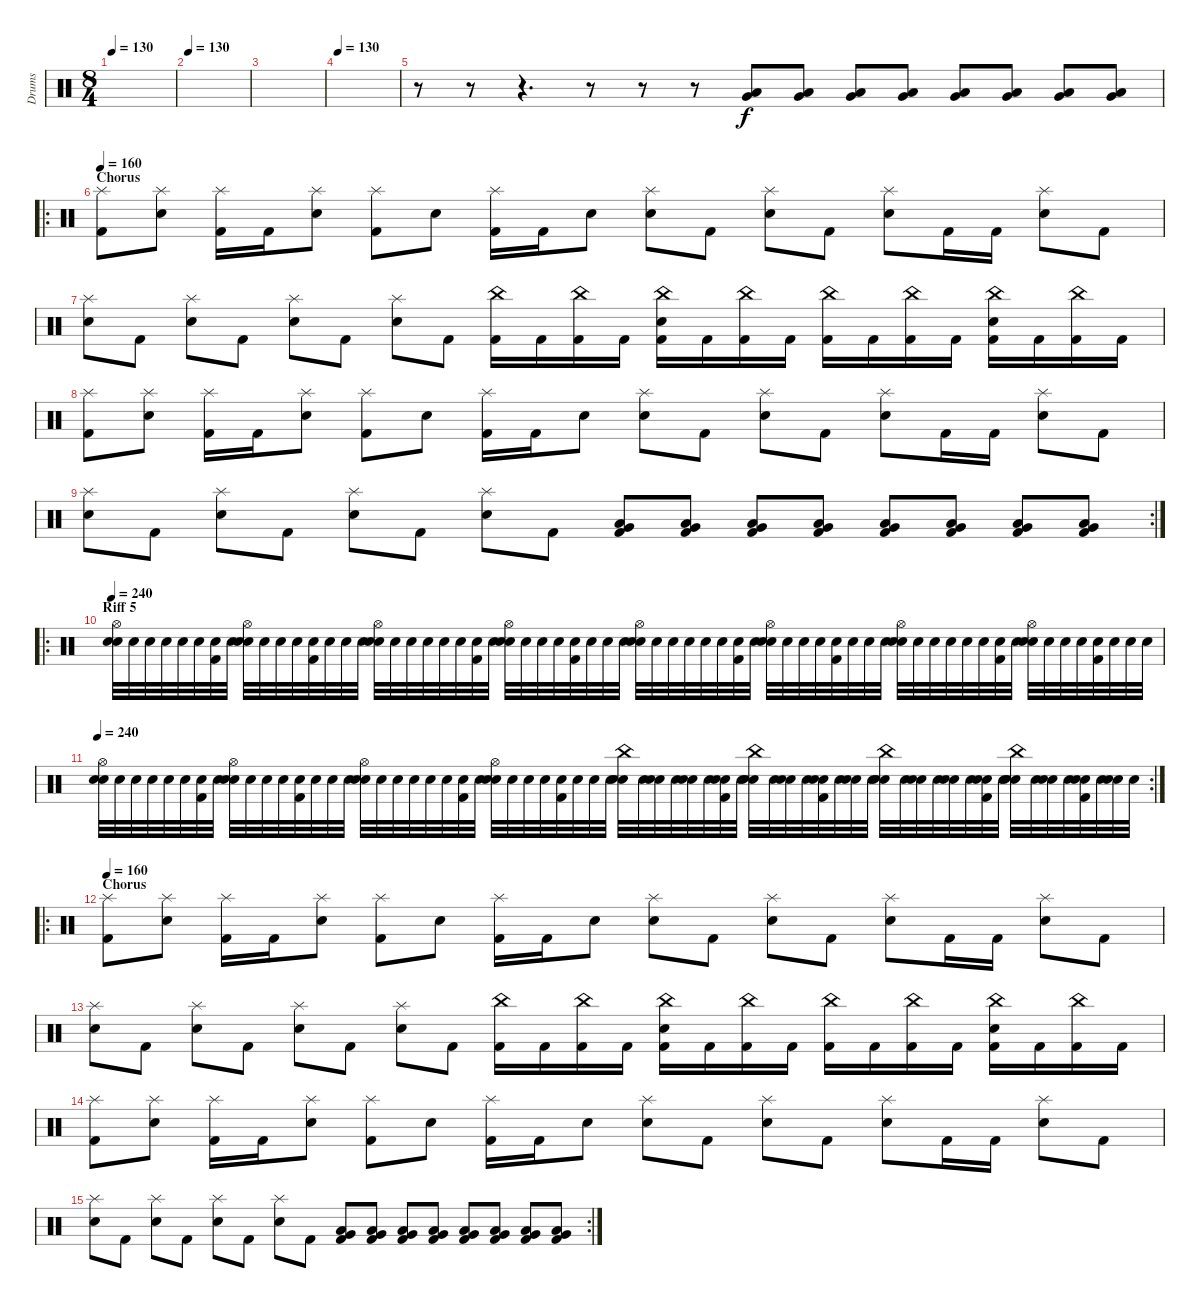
\track ("Drums" "Drums") {instrument percussion}
\staff {score}
\articulation defaults
\ts (8 4)
\tempo 130
\clef neutral
\ks c
|
\tempo 130
|
|
\tempo 130
|
r.8 r.8 r.4{d} r.8 r.8 r.8 ("Very Low Tom (hit)" "Low Tom (hit)").8 ("Very Low Tom (hit)" "Low Tom (hit)").8 ("Very Low Tom (hit)" "Low Tom (hit)").8 ("Very Low Tom (hit)" "Low Tom (hit)").8 ("Very Low Tom (hit)" "Low Tom (hit)").8 ("Very Low Tom (hit)" "Low Tom (hit)").8 ("Very Low Tom (hit)" "Low Tom (hit)").8 ("Very Low Tom (hit)" "Low Tom (hit)").8 |
\ro
\section ("" "Chorus")
\tempo 160
("Kick (hit) 2" "Splash (hit)").8 ("Snare (hit) 2" "Splash (hit)").8 ("Kick (hit) 2" "Splash (hit)").16 "Kick (hit) 2".16 ("Snare (hit) 2" "Splash (hit)").8 ("Kick (hit) 2" "Splash (hit)").8 "Snare (hit) 2".8 ("Kick (hit) 2" "Splash (hit)").16 "Kick (hit) 2".16 "Snare (hit) 2".8 ("Snare (hit) 2" "Splash (hit)").8 "Kick (hit) 2".8 ("Snare (hit) 2" "Splash (hit)").8 "Kick (hit) 2".8 ("Snare (hit) 2" "Splash (hit)").8 "Kick (hit) 2".16 "Kick (hit) 2".16 ("Snare (hit) 2" "Splash (hit)").8 "Kick (hit) 2".8 |
("Snare (hit) 2" "Splash (hit)").8 "Kick (hit) 2".8 ("Snare (hit) 2" "Splash (hit)").8 "Kick (hit) 2".8 ("Snare (hit) 2" "Splash (hit)").8 "Kick (hit) 2".8 ("Snare (hit) 2" "Splash (hit)").8 "Kick (hit) 2".8 ("Kick (hit) 2" "China (hit)").16 "Kick (hit) 2".16 ("Kick (hit) 2" "China (hit)").16 "Kick (hit) 2".16 ("Kick (hit) 2" "Snare (hit) 2" "China (hit)").16 "Kick (hit) 2".16 ("Kick (hit) 2" "China (hit)").16 "Kick (hit) 2".16 ("Kick (hit) 2" "China (hit)").16 "Kick (hit) 2".16 ("Kick (hit) 2" "China (hit)").16 "Kick (hit) 2".16 ("Kick (hit) 2" "Snare (hit) 2" "China (hit)").16 "Kick (hit) 2".16 ("Kick (hit) 2" "China (hit)").16 "Kick (hit) 2".16 |
("Kick (hit) 2" "Splash (hit)").8 ("Snare (hit) 2" "Splash (hit)").8 ("Kick (hit) 2" "Splash (hit)").16 "Kick (hit) 2".16 ("Snare (hit) 2" "Splash (hit)").8 ("Kick (hit) 2" "Splash (hit)").8 "Snare (hit) 2".8 ("Kick (hit) 2" "Splash (hit)").16 "Kick (hit) 2".16 "Snare (hit) 2".8 ("Snare (hit) 2" "Splash (hit)").8 "Kick (hit) 2".8 ("Snare (hit) 2" "Splash (hit)").8 "Kick (hit) 2".8 ("Snare (hit) 2" "Splash (hit)").8 "Kick (hit) 2".16 "Kick (hit) 2".16 ("Snare (hit) 2" "Splash (hit)").8 "Kick (hit) 2".8 |
\rc 2
("Snare (hit) 2" "Splash (hit)").8 "Kick (hit) 2".8 ("Snare (hit) 2" "Splash (hit)").8 "Kick (hit) 2".8 ("Snare (hit) 2" "Splash (hit)").8 "Kick (hit) 2".8 ("Snare (hit) 2" "Splash (hit)").8 "Kick (hit) 2".8 ("Kick (hit) 2" "Low Tom (hit)" "Very Low Tom (hit)").8 ("Kick (hit) 2" "Low Tom (hit)" "Very Low Tom (hit)").8 ("Kick (hit) 2" "Low Tom (hit)" "Very Low Tom (hit)").8 ("Kick (hit) 2" "Low Tom (hit)" "Very Low Tom (hit)").8 ("Kick (hit) 2" "Low Tom (hit)" "Very Low Tom (hit)").8 ("Kick (hit) 2" "Low Tom (hit)" "Very Low Tom (hit)").8 ("Kick (hit) 2" "Low Tom (hit)" "Very Low Tom (hit)").8 ("Kick (hit) 2" "Low Tom (hit)" "Very Low Tom (hit)").8 |
\ro
\section ("" "Riff 5")
\tempo 240
("Snare (hit)" "Hi-Hat (open)" "Snare (hit) 2").32 "Snare (hit)".32 "Snare (hit)".32 "Snare (hit)".32 "Snare (hit)".32 "Snare (hit)".32 ("Snare (hit)" "Kick (hit) 2").32 "Snare (hit)".32 ("Snare (hit)" "Hi-Hat (open)" "Snare (hit) 2").32 "Snare (hit)".32 "Snare (hit)".32 "Snare (hit)".32 ("Snare (hit)" "Kick (hit) 2").32 "Snare (hit)".32 "Snare (hit)".32 "Snare (hit)".32 ("Snare (hit)" "Hi-Hat (open)" "Snare (hit) 2").32 "Snare (hit)".32 "Snare (hit)".32 "Snare (hit)".32 "Snare (hit)".32 "Snare (hit)".32 ("Snare (hit)" "Kick (hit) 2").32 "Snare (hit)".32 ("Snare (hit)" "Hi-Hat (open)" "Snare (hit) 2").32 "Snare (hit)".32 "Snare (hit)".32 "Snare (hit)".32 ("Snare (hit)" "Kick (hit) 2").32 "Snare (hit)".32 "Snare (hit)".32 "Snare (hit)".32 ("Snare (hit)" "Hi-Hat (open)" "Snare (hit) 2").32 "Snare (hit)".32 "Snare (hit)".32 "Snare (hit)".32 "Snare (hit)".32 "Snare (hit)".32 ("Snare (hit)" "Kick (hit) 2").32 "Snare (hit)".32 ("Snare (hit)" "Hi-Hat (open)" "Snare (hit) 2").32 "Snare (hit)".32 "Snare (hit)".32 "Snare (hit)".32 ("Snare (hit)" "Kick (hit) 2").32 "Snare (hit)".32 "Snare (hit)".32 "Snare (hit)".32 ("Snare (hit)" "Hi-Hat (open)" "Snare (hit) 2").32 "Snare (hit)".32 "Snare (hit)".32 "Snare (hit)".32 "Snare (hit)".32 "Snare (hit)".32 ("Snare (hit)" "Kick (hit) 2").32 "Snare (hit)".32 ("Snare (hit)" "Hi-Hat (open)" "Snare (hit) 2").32 "Snare (hit)".32 "Snare (hit)".32 "Snare (hit)".32 ("Snare (hit)" "Kick (hit) 2").32 "Snare (hit)".32 "Snare (hit)".32 "Snare (hit)".32 |
\rc 2
\tempo 240
("Snare (hit)" "Hi-Hat (open)" "Snare (hit) 2").32 "Snare (hit)".32 "Snare (hit)".32 "Snare (hit)".32 "Snare (hit)".32 "Snare (hit)".32 ("Snare (hit)" "Kick (hit) 2").32 "Snare (hit)".32 ("Snare (hit)" "Hi-Hat (open)" "Snare (hit) 2").32 "Snare (hit)".32 "Snare (hit)".32 "Snare (hit)".32 ("Snare (hit)" "Kick (hit) 2").32 "Snare (hit)".32 "Snare (hit)".32 "Snare (hit)".32 ("Snare (hit)" "Hi-Hat (open)" "Snare (hit) 2").32 "Snare (hit)".32 "Snare (hit)".32 "Snare (hit)".32 "Snare (hit)".32 "Snare (hit)".32 ("Snare (hit)" "Kick (hit) 2").32 "Snare (hit)".32 ("Snare (hit)" "Hi-Hat (open)" "Snare (hit) 2").32 "Snare (hit)".32 "Snare (hit)".32 "Snare (hit)".32 ("Snare (hit)" "Kick (hit) 2").32 "Snare (hit)".32 "Snare (hit)".32 "Snare (hit)".32 ("Snare (hit)" "Snare (hit) 2" "China (hit)").32 "Snare (hit)".32 ("Snare (hit)" "Snare (hit) 2").32 "Snare (hit)".32 ("Snare (hit)" "Snare (hit) 2").32 "Snare (hit)".32 ("Snare (hit)" "Kick (hit) 2" "Snare (hit) 2").32 "Snare (hit)".32 ("Snare (hit)" "Snare (hit) 2" "China (hit)").32 "Snare (hit)".32 ("Snare (hit)" "Snare (hit) 2").32 "Snare (hit)".32 ("Snare (hit)" "Kick (hit) 2" "Snare (hit) 2").32 "Snare (hit)".32 ("Snare (hit)" "Snare (hit) 2").32 "Snare (hit)".32 ("Snare (hit)" "Snare (hit) 2" "China (hit)").32 "Snare (hit)".32 ("Snare (hit)" "Snare (hit) 2").32 "Snare (hit)".32 ("Snare (hit)" "Snare (hit) 2").32 "Snare (hit)".32 ("Snare (hit)" "Kick (hit) 2" "Snare (hit) 2").32 "Snare (hit)".32 ("Snare (hit)" "Snare (hit) 2" "China (hit)").32 "Snare (hit)".32 ("Snare (hit)" "Snare (hit) 2").32 "Snare (hit)".32 ("Snare (hit)" "Kick (hit) 2" "Snare (hit) 2").32 "Snare (hit)".32 ("Snare (hit)" "Snare (hit) 2").32 "Snare (hit)".32 |
\ro
\section ("" "Chorus")
\tempo 160
("Kick (hit) 2" "Splash (hit)").8 ("Snare (hit) 2" "Splash (hit)").8 ("Kick (hit) 2" "Splash (hit)").16 "Kick (hit) 2".16 ("Snare (hit) 2" "Splash (hit)").8 ("Kick (hit) 2" "Splash (hit)").8 "Snare (hit) 2".8 ("Kick (hit) 2" "Splash (hit)").16 "Kick (hit) 2".16 "Snare (hit) 2".8 ("Snare (hit) 2" "Splash (hit)").8 "Kick (hit) 2".8 ("Snare (hit) 2" "Splash (hit)").8 "Kick (hit) 2".8 ("Snare (hit) 2" "Splash (hit)").8 "Kick (hit) 2".16 "Kick (hit) 2".16 ("Snare (hit) 2" "Splash (hit)").8 "Kick (hit) 2".8 |
("Snare (hit) 2" "Splash (hit)").8 "Kick (hit) 2".8 ("Snare (hit) 2" "Splash (hit)").8 "Kick (hit) 2".8 ("Snare (hit) 2" "Splash (hit)").8 "Kick (hit) 2".8 ("Snare (hit) 2" "Splash (hit)").8 "Kick (hit) 2".8 ("Kick (hit) 2" "China (hit)").16 "Kick (hit) 2".16 ("Kick (hit) 2" "China (hit)").16 "Kick (hit) 2".16 ("Kick (hit) 2" "Snare (hit) 2" "China (hit)").16 "Kick (hit) 2".16 ("Kick (hit) 2" "China (hit)").16 "Kick (hit) 2".16 ("Kick (hit) 2" "China (hit)").16 "Kick (hit) 2".16 ("Kick (hit) 2" "China (hit)").16 "Kick (hit) 2".16 ("Kick (hit) 2" "Snare (hit) 2" "China (hit)").16 "Kick (hit) 2".16 ("Kick (hit) 2" "China (hit)").16 "Kick (hit) 2".16 |
("Kick (hit) 2" "Splash (hit)").8 ("Snare (hit) 2" "Splash (hit)").8 ("Kick (hit) 2" "Splash (hit)").16 "Kick (hit) 2".16 ("Snare (hit) 2" "Splash (hit)").8 ("Kick (hit) 2" "Splash (hit)").8 "Snare (hit) 2".8 ("Kick (hit) 2" "Splash (hit)").16 "Kick (hit) 2".16 "Snare (hit) 2".8 ("Snare (hit) 2" "Splash (hit)").8 "Kick (hit) 2".8 ("Snare (hit) 2" "Splash (hit)").8 "Kick (hit) 2".8 ("Snare (hit) 2" "Splash (hit)").8 "Kick (hit) 2".16 "Kick (hit) 2".16 ("Snare (hit) 2" "Splash (hit)").8 "Kick (hit) 2".8 |
\rc 2
("Snare (hit) 2" "Splash (hit)").8 "Kick (hit) 2".8 ("Snare (hit) 2" "Splash (hit)").8 "Kick (hit) 2".8 ("Snare (hit) 2" "Splash (hit)").8 "Kick (hit) 2".8 ("Snare (hit) 2" "Splash (hit)").8 "Kick (hit) 2".8 ("Kick (hit) 2" "Low Tom (hit)" "Very Low Tom (hit)").8 ("Kick (hit) 2" "Low Tom (hit)" "Very Low Tom (hit)").8 ("Kick (hit) 2" "Low Tom (hit)" "Very Low Tom (hit)").8 ("Kick (hit) 2" "Low Tom (hit)" "Very Low Tom (hit)").8 ("Kick (hit) 2" "Low Tom (hit)" "Very Low Tom (hit)").8 ("Kick (hit) 2" "Low Tom (hit)" "Very Low Tom (hit)").8 ("Kick (hit) 2" "Low Tom (hit)" "Very Low Tom (hit)").8 ("Kick (hit) 2" "Low Tom (hit)" "Very Low Tom (hit)").8
